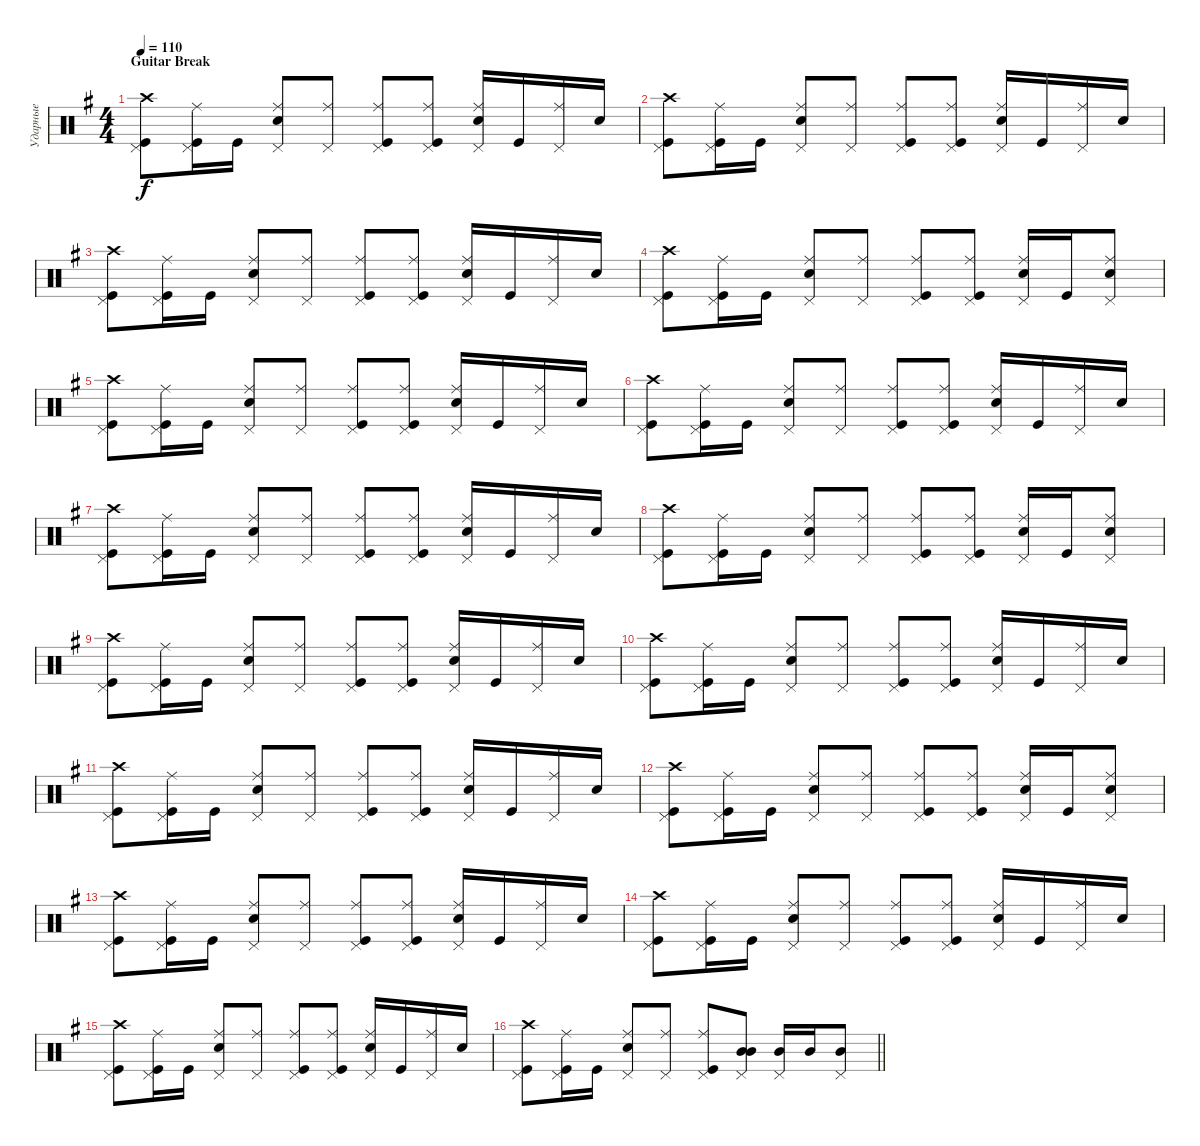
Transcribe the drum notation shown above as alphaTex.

\track ("Ударные" "Ударные") {instrument percussion}
\staff {score}
\articulation defaults
\ts (4 4)
\section ("" "Guitar Break")
\tempo 110
\clef neutral
\ks eminor
("Pedal Hi-Hat (hit)" "Kick (hit)" "Crash high (hit)").8{dy f} ("Pedal Hi-Hat (hit)" "Ride (middle)" "Kick (hit)").16 "Kick (hit)".16 ("Snare (hit) 2" "Ride (middle)" "Pedal Hi-Hat (hit)").8 ("Ride (middle)" "Pedal Hi-Hat (hit)").8 ("Kick (hit)" "Ride (middle)" "Pedal Hi-Hat (hit)").8 ("Kick (hit)" "Ride (middle)" "Pedal Hi-Hat (hit)").8 ("Snare (hit) 2" "Ride (middle)" "Pedal Hi-Hat (hit)").16 "Kick (hit)".16 ("Ride (middle)" "Pedal Hi-Hat (hit)").16 "Snare (hit) 2".16 |
("Pedal Hi-Hat (hit)" "Kick (hit)" "Crash high (hit)").8 ("Pedal Hi-Hat (hit)" "Ride (middle)" "Kick (hit)").16 "Kick (hit)".16 ("Snare (hit) 2" "Ride (middle)" "Pedal Hi-Hat (hit)").8 ("Ride (middle)" "Pedal Hi-Hat (hit)").8 ("Kick (hit)" "Ride (middle)" "Pedal Hi-Hat (hit)").8 ("Kick (hit)" "Ride (middle)" "Pedal Hi-Hat (hit)").8 ("Snare (hit) 2" "Ride (middle)" "Pedal Hi-Hat (hit)").16 "Kick (hit)".16 ("Ride (middle)" "Pedal Hi-Hat (hit)").16 "Snare (hit) 2".16 |
("Pedal Hi-Hat (hit)" "Kick (hit)" "Crash high (hit)").8 ("Pedal Hi-Hat (hit)" "Ride (middle)" "Kick (hit)").16 "Kick (hit)".16 ("Snare (hit) 2" "Ride (middle)" "Pedal Hi-Hat (hit)").8 ("Ride (middle)" "Pedal Hi-Hat (hit)").8 ("Kick (hit)" "Ride (middle)" "Pedal Hi-Hat (hit)").8 ("Kick (hit)" "Ride (middle)" "Pedal Hi-Hat (hit)").8 ("Snare (hit) 2" "Ride (middle)" "Pedal Hi-Hat (hit)").16 "Kick (hit)".16 ("Ride (middle)" "Pedal Hi-Hat (hit)").16 "Snare (hit) 2".16 |
("Pedal Hi-Hat (hit)" "Kick (hit)" "Crash high (hit)").8 ("Pedal Hi-Hat (hit)" "Ride (middle)" "Kick (hit)").16 "Kick (hit)".16 ("Snare (hit) 2" "Ride (middle)" "Pedal Hi-Hat (hit)").8 ("Ride (middle)" "Pedal Hi-Hat (hit)").8 ("Kick (hit)" "Ride (middle)" "Pedal Hi-Hat (hit)").8 ("Kick (hit)" "Ride (middle)" "Pedal Hi-Hat (hit)").8 ("Snare (hit) 2" "Ride (middle)" "Pedal Hi-Hat (hit)").16 "Kick (hit)".16 ("Ride (middle)" "Pedal Hi-Hat (hit)" "Snare (hit) 2").8 |
("Pedal Hi-Hat (hit)" "Kick (hit)" "Crash high (hit)").8 ("Pedal Hi-Hat (hit)" "Ride (middle)" "Kick (hit)").16 "Kick (hit)".16 ("Snare (hit) 2" "Ride (middle)" "Pedal Hi-Hat (hit)").8 ("Ride (middle)" "Pedal Hi-Hat (hit)").8 ("Kick (hit)" "Ride (middle)" "Pedal Hi-Hat (hit)").8 ("Kick (hit)" "Ride (middle)" "Pedal Hi-Hat (hit)").8 ("Snare (hit) 2" "Ride (middle)" "Pedal Hi-Hat (hit)").16 "Kick (hit)".16 ("Ride (middle)" "Pedal Hi-Hat (hit)").16 "Snare (hit) 2".16 |
("Pedal Hi-Hat (hit)" "Kick (hit)" "Crash high (hit)").8 ("Pedal Hi-Hat (hit)" "Ride (middle)" "Kick (hit)").16 "Kick (hit)".16 ("Snare (hit) 2" "Ride (middle)" "Pedal Hi-Hat (hit)").8 ("Ride (middle)" "Pedal Hi-Hat (hit)").8 ("Kick (hit)" "Ride (middle)" "Pedal Hi-Hat (hit)").8 ("Kick (hit)" "Ride (middle)" "Pedal Hi-Hat (hit)").8 ("Snare (hit) 2" "Ride (middle)" "Pedal Hi-Hat (hit)").16 "Kick (hit)".16 ("Ride (middle)" "Pedal Hi-Hat (hit)").16 "Snare (hit) 2".16 |
("Pedal Hi-Hat (hit)" "Kick (hit)" "Crash high (hit)").8 ("Pedal Hi-Hat (hit)" "Ride (middle)" "Kick (hit)").16 "Kick (hit)".16 ("Snare (hit) 2" "Ride (middle)" "Pedal Hi-Hat (hit)").8 ("Ride (middle)" "Pedal Hi-Hat (hit)").8 ("Kick (hit)" "Ride (middle)" "Pedal Hi-Hat (hit)").8 ("Kick (hit)" "Ride (middle)" "Pedal Hi-Hat (hit)").8 ("Snare (hit) 2" "Ride (middle)" "Pedal Hi-Hat (hit)").16 "Kick (hit)".16 ("Ride (middle)" "Pedal Hi-Hat (hit)").16 "Snare (hit) 2".16 |
("Pedal Hi-Hat (hit)" "Kick (hit)" "Crash high (hit)").8 ("Pedal Hi-Hat (hit)" "Ride (middle)" "Kick (hit)").16 "Kick (hit)".16 ("Snare (hit) 2" "Ride (middle)" "Pedal Hi-Hat (hit)").8 ("Ride (middle)" "Pedal Hi-Hat (hit)").8 ("Kick (hit)" "Ride (middle)" "Pedal Hi-Hat (hit)").8 ("Kick (hit)" "Ride (middle)" "Pedal Hi-Hat (hit)").8 ("Snare (hit) 2" "Ride (middle)" "Pedal Hi-Hat (hit)").16 "Kick (hit)".16 ("Ride (middle)" "Pedal Hi-Hat (hit)" "Snare (hit) 2").8 |
("Pedal Hi-Hat (hit)" "Kick (hit)" "Crash high (hit)").8 ("Pedal Hi-Hat (hit)" "Ride (middle)" "Kick (hit)").16 "Kick (hit)".16 ("Snare (hit) 2" "Ride (middle)" "Pedal Hi-Hat (hit)").8 ("Ride (middle)" "Pedal Hi-Hat (hit)").8 ("Kick (hit)" "Ride (middle)" "Pedal Hi-Hat (hit)").8 ("Kick (hit)" "Ride (middle)" "Pedal Hi-Hat (hit)").8 ("Snare (hit) 2" "Ride (middle)" "Pedal Hi-Hat (hit)").16 "Kick (hit)".16 ("Ride (middle)" "Pedal Hi-Hat (hit)").16 "Snare (hit) 2".16 |
("Pedal Hi-Hat (hit)" "Kick (hit)" "Crash high (hit)").8 ("Pedal Hi-Hat (hit)" "Ride (middle)" "Kick (hit)").16 "Kick (hit)".16 ("Snare (hit) 2" "Ride (middle)" "Pedal Hi-Hat (hit)").8 ("Ride (middle)" "Pedal Hi-Hat (hit)").8 ("Kick (hit)" "Ride (middle)" "Pedal Hi-Hat (hit)").8 ("Kick (hit)" "Ride (middle)" "Pedal Hi-Hat (hit)").8 ("Snare (hit) 2" "Ride (middle)" "Pedal Hi-Hat (hit)").16 "Kick (hit)".16 ("Ride (middle)" "Pedal Hi-Hat (hit)").16 "Snare (hit) 2".16 |
("Pedal Hi-Hat (hit)" "Kick (hit)" "Crash high (hit)").8 ("Pedal Hi-Hat (hit)" "Ride (middle)" "Kick (hit)").16 "Kick (hit)".16 ("Snare (hit) 2" "Ride (middle)" "Pedal Hi-Hat (hit)").8 ("Ride (middle)" "Pedal Hi-Hat (hit)").8 ("Kick (hit)" "Ride (middle)" "Pedal Hi-Hat (hit)").8 ("Kick (hit)" "Ride (middle)" "Pedal Hi-Hat (hit)").8 ("Snare (hit) 2" "Ride (middle)" "Pedal Hi-Hat (hit)").16 "Kick (hit)".16 ("Ride (middle)" "Pedal Hi-Hat (hit)").16 "Snare (hit) 2".16 |
("Pedal Hi-Hat (hit)" "Kick (hit)" "Crash high (hit)").8 ("Pedal Hi-Hat (hit)" "Ride (middle)" "Kick (hit)").16 "Kick (hit)".16 ("Snare (hit) 2" "Ride (middle)" "Pedal Hi-Hat (hit)").8 ("Ride (middle)" "Pedal Hi-Hat (hit)").8 ("Kick (hit)" "Ride (middle)" "Pedal Hi-Hat (hit)").8 ("Kick (hit)" "Ride (middle)" "Pedal Hi-Hat (hit)").8 ("Snare (hit) 2" "Ride (middle)" "Pedal Hi-Hat (hit)").16 "Kick (hit)".16 ("Ride (middle)" "Pedal Hi-Hat (hit)" "Snare (hit) 2").8 |
("Pedal Hi-Hat (hit)" "Kick (hit)" "Crash high (hit)").8 ("Pedal Hi-Hat (hit)" "Ride (middle)" "Kick (hit)").16 "Kick (hit)".16 ("Snare (hit) 2" "Ride (middle)" "Pedal Hi-Hat (hit)").8 ("Ride (middle)" "Pedal Hi-Hat (hit)").8 ("Kick (hit)" "Ride (middle)" "Pedal Hi-Hat (hit)").8 ("Kick (hit)" "Ride (middle)" "Pedal Hi-Hat (hit)").8 ("Snare (hit) 2" "Ride (middle)" "Pedal Hi-Hat (hit)").16 "Kick (hit)".16 ("Ride (middle)" "Pedal Hi-Hat (hit)").16 "Snare (hit) 2".16 |
("Pedal Hi-Hat (hit)" "Kick (hit)" "Crash high (hit)").8 ("Pedal Hi-Hat (hit)" "Ride (middle)" "Kick (hit)").16 "Kick (hit)".16 ("Snare (hit) 2" "Ride (middle)" "Pedal Hi-Hat (hit)").8 ("Ride (middle)" "Pedal Hi-Hat (hit)").8 ("Kick (hit)" "Ride (middle)" "Pedal Hi-Hat (hit)").8 ("Kick (hit)" "Ride (middle)" "Pedal Hi-Hat (hit)").8 ("Snare (hit) 2" "Ride (middle)" "Pedal Hi-Hat (hit)").16 "Kick (hit)".16 ("Ride (middle)" "Pedal Hi-Hat (hit)").16 "Snare (hit) 2".16 |
("Pedal Hi-Hat (hit)" "Kick (hit)" "Crash high (hit)").8 ("Pedal Hi-Hat (hit)" "Ride (middle)" "Kick (hit)").16 "Kick (hit)".16 ("Snare (hit) 2" "Ride (middle)" "Pedal Hi-Hat (hit)").8 ("Ride (middle)" "Pedal Hi-Hat (hit)").8 ("Kick (hit)" "Ride (middle)" "Pedal Hi-Hat (hit)").8 ("Kick (hit)" "Ride (middle)" "Pedal Hi-Hat (hit)").8 ("Snare (hit) 2" "Ride (middle)" "Pedal Hi-Hat (hit)").16 "Kick (hit)".16 ("Ride (middle)" "Pedal Hi-Hat (hit)").16 "Snare (hit) 2".16 |
\barLineRight lightlight
("Pedal Hi-Hat (hit)" "Kick (hit)" "Crash high (hit)").8 ("Pedal Hi-Hat (hit)" "Ride (middle)" "Kick (hit)").16 "Kick (hit)".16 ("Snare (hit) 2" "Ride (middle)" "Pedal Hi-Hat (hit)").8 ("Ride (middle)" "Pedal Hi-Hat (hit)").8 ("Kick (hit)" "Ride (middle)" "Pedal Hi-Hat (hit)").8 ("Mid Tom (hit)" "Mid Tom (hit)" "Pedal Hi-Hat (hit)").8{bd 240} ("Mid Tom (hit)" "Pedal Hi-Hat (hit)").16 "Mid Tom (hit)".16 ("Mid Tom (hit)" "Pedal Hi-Hat (hit)").8
